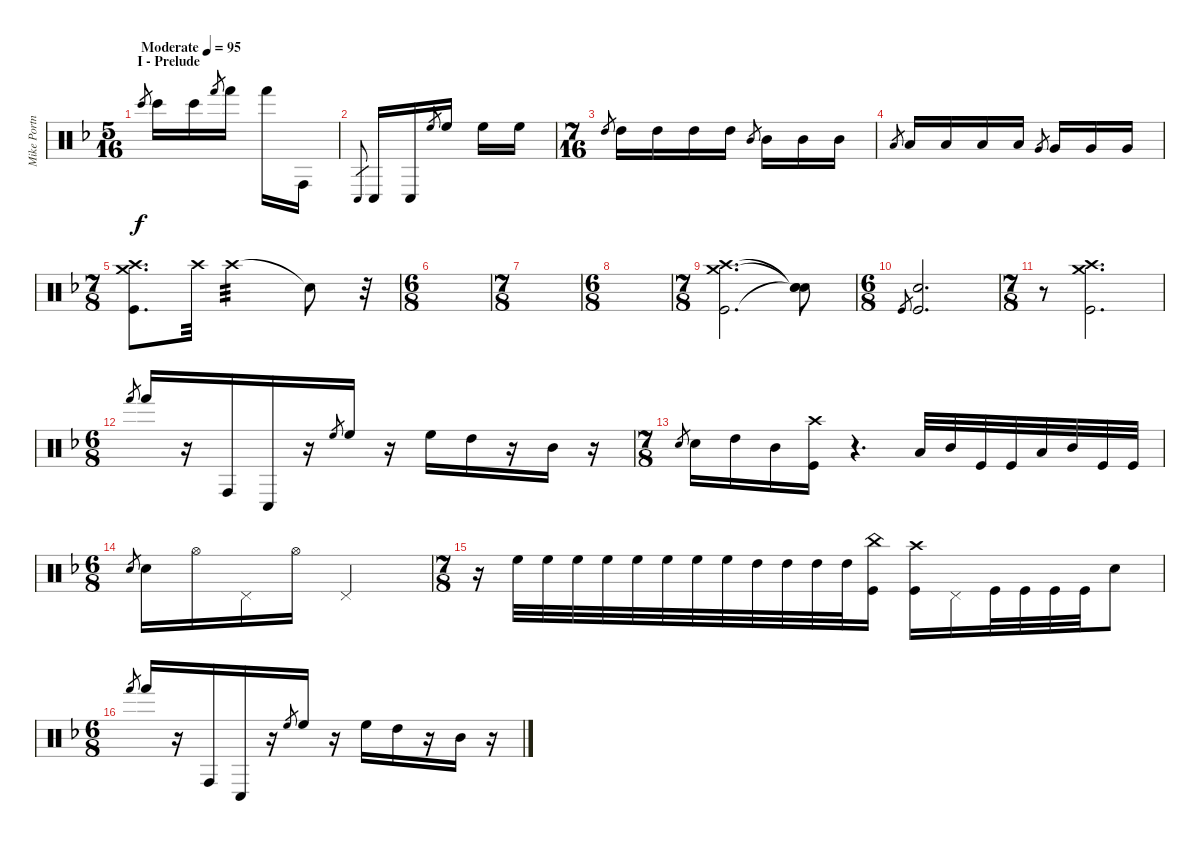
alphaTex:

\track ("Mike Portnoy - Drums" "Mike Portn") {instrument percussion}
\staff {score}
\articulation defaults
\ts (5 16)
\section ("" "I - Prelude")
\tempo (95 "Moderate")
\clef neutral
\ks dminor "Bongo High (hit)".8{gr dy f} "Bongo High (hit)".16 "Bongo High (hit)".16 "Hand (hit)".8{gr} "Hand (hit)".16 "Hand (hit)".16 "Conga high (hit)".16
|
"Conga low (hit)".8{gr} "Conga low (hit)".16 "Conga low (hit)".16 "High Floor Tom (hit)".8{gr} "High Floor Tom (hit)".16 "High Floor Tom (hit)".16 "High Floor Tom (hit)".16 |
\ts (7 16)
"High Tom (hit)".8{gr} "High Tom (hit)".16 "High Tom (hit)".16 "High Tom (hit)".16 "High Tom (hit)".16 "Mid Tom (hit)".8{gr} "Mid Tom (hit)".16 "Mid Tom (hit)".16 "Mid Tom (hit)".16 |
"Low Tom (hit)".8{gr} "Low Tom (hit)".16 "Low Tom (hit)".16 "Low Tom (hit)".16 "Low Tom (hit)".16 "Very Low Tom (hit)".8{gr} "Very Low Tom (hit)".16 "Very Low Tom (hit)".16 "Very Low Tom (hit)".16 |
\ts (7 8)
("Crash medium (hit)" "Crash high (hit)" "Kick (hit)").8{d} "Crash high (hit)".32{volume 3} "Crash high (hit)".2{tp 3 volume 13} "Snare (hit)"{t}.8 r.32 |
\ts (6 8)
|
\ts (7 8)
|
\ts (6 8)
|
\ts (7 8)
("Crash high (hit)" "Crash medium (hit)" "Kick (hit)").2{d} ("Snare (hit)"{t} "Snare (hit)"{t} "Snare (hit)"{t}).8 |
\ts (6 8)
"Kick (hit)".8{gr} ("Snare (hit) 2" "Kick (hit)").2{d} |
\ts (7 8)
r.8 ("Crash high (hit)" "Crash medium (hit)" "Kick (hit)").2{d} |
\ts (6 8)
"Hand (hit)".8{gr} "Hand (hit)".16 r.16 "Conga high (hit)".16 "Conga low (hit)".16 r.16 "High Floor Tom (hit)".8{gr} "High Floor Tom (hit)".16 r.16 "High Floor Tom (hit)".16 "High Tom (hit)".16 r.16 "Mid Tom (hit)".16 r.16 |
\ts (7 8)
"Snare (hit) 2".8{gr} "Snare (hit) 2".16 "High Tom (hit)".16 "Mid Tom (hit)".16 ("Crash high (hit)" "Kick (hit)").16 r.4{d} "Low Tom (hit)".32 "Mid Tom (hit)".32 "Kick (hit)".32 "Kick (hit)".32 "Low Tom (hit)".32 "Mid Tom (hit)".32 "Kick (hit)".32 "Kick (hit)".32 |
\ts (6 8)
"Snare (hit) 2".8{gr} "Snare (hit) 2".16 "Hi-Hat (open)".16 "Pedal Hi-Hat (hit)".16 "Hi-Hat (open)".16 "Pedal Hi-Hat (hit)".2 |
\ts (7 8)
r.16 "High Floor Tom (hit)".32 "High Floor Tom (hit)".32 "High Floor Tom (hit)".32 "High Floor Tom (hit)".32 "High Floor Tom (hit)".32 "High Floor Tom (hit)".32 "High Floor Tom (hit)".32 "High Floor Tom (hit)".32 "High Tom (hit)".32 "High Tom (hit)".32 "High Tom (hit)".32 "High Tom (hit)".32 ("China (hit)" "Kick (hit)").16 ("Crash high (hit)" "Kick (hit)").16 "Pedal Hi-Hat (hit)".16 "Kick (hit)".32 "Kick (hit)".32 "Kick (hit)".32 "Kick (hit)".32 "Snare (hit) 2".8 |
\ts (6 8)
"Hand (hit)".8{gr} "Hand (hit)".16 r.16 "Conga high (hit)".16 "Conga low (hit)".16 r.16 "High Floor Tom (hit)".8{gr} "High Floor Tom (hit)".16 r.16 "High Floor Tom (hit)".16 "High Tom (hit)".16 r.16 "Mid Tom (hit)".16 r.16
